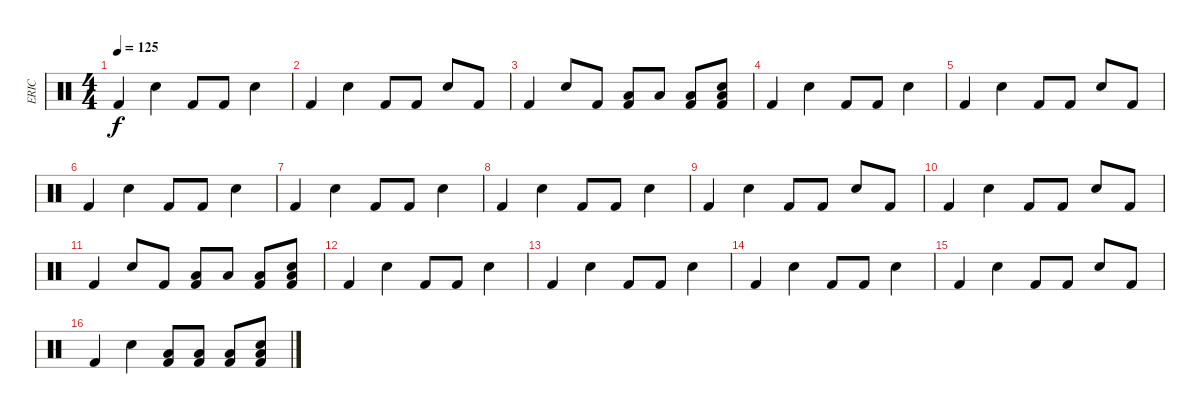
\track ("ERIC" "ERIC") {instrument percussion}
\staff {score}
\articulation defaults
\ts (4 4)
\tempo 125
\clef neutral
\ks c "Kick (hit) 2".4{dy f} "Electric Snare (hit)".4 "Kick (hit) 2".8 "Kick (hit) 2".8 "Electric Snare (hit)".4
|
"Kick (hit) 2".4 "Electric Snare (hit)".4 "Kick (hit) 2".8 "Kick (hit) 2".8 "Electric Snare (hit)".8 "Kick (hit) 2".8 |
"Kick (hit) 2".4 "Electric Snare (hit)".8 "Kick (hit) 2".8 ("Low Floor Tom (hit)" "Kick (hit) 2").8 "Low Floor Tom (hit)".8 ("Low Floor Tom (hit)" "Kick (hit) 2").8 ("Electric Snare (hit)" "Low Floor Tom (hit)" "Kick (hit) 2").8 |
"Kick (hit) 2".4 "Electric Snare (hit)".4 "Kick (hit) 2".8 "Kick (hit) 2".8 "Electric Snare (hit)".4 |
"Kick (hit) 2".4 "Electric Snare (hit)".4 "Kick (hit) 2".8 "Kick (hit) 2".8 "Electric Snare (hit)".8 "Kick (hit) 2".8 |
"Kick (hit) 2".4 "Electric Snare (hit)".4 "Kick (hit) 2".8 "Kick (hit) 2".8 "Electric Snare (hit)".4 |
"Kick (hit) 2".4 "Electric Snare (hit)".4 "Kick (hit) 2".8 "Kick (hit) 2".8 "Electric Snare (hit)".4 |
"Kick (hit) 2".4 "Electric Snare (hit)".4 "Kick (hit) 2".8 "Kick (hit) 2".8 "Electric Snare (hit)".4 |
"Kick (hit) 2".4 "Electric Snare (hit)".4 "Kick (hit) 2".8 "Kick (hit) 2".8 "Electric Snare (hit)".8 "Kick (hit) 2".8 |
"Kick (hit) 2".4 "Electric Snare (hit)".4 "Kick (hit) 2".8 "Kick (hit) 2".8 "Electric Snare (hit)".8 "Kick (hit) 2".8 |
"Kick (hit) 2".4 "Electric Snare (hit)".8 "Kick (hit) 2".8 ("Low Floor Tom (hit)" "Kick (hit) 2").8 "Low Floor Tom (hit)".8 ("Low Floor Tom (hit)" "Kick (hit) 2").8 ("Electric Snare (hit)" "Low Floor Tom (hit)" "Kick (hit) 2").8 |
"Kick (hit) 2".4 "Electric Snare (hit)".4 "Kick (hit) 2".8 "Kick (hit) 2".8 "Electric Snare (hit)".4 |
"Kick (hit) 2".4 "Electric Snare (hit)".4 "Kick (hit) 2".8 "Kick (hit) 2".8 "Electric Snare (hit)".4 |
"Kick (hit) 2".4 "Electric Snare (hit)".4 "Kick (hit) 2".8 "Kick (hit) 2".8 "Electric Snare (hit)".4 |
"Kick (hit) 2".4 "Electric Snare (hit)".4 "Kick (hit) 2".8 "Kick (hit) 2".8 "Electric Snare (hit)".8 "Kick (hit) 2".8 |
"Kick (hit) 2".4 "Electric Snare (hit)".4 ("Low Floor Tom (hit)" "Kick (hit) 2").8 ("Low Floor Tom (hit)" "Kick (hit) 2").8 ("Low Floor Tom (hit)" "Kick (hit) 2").8 ("Electric Snare (hit)" "Low Floor Tom (hit)" "Kick (hit) 2").8
